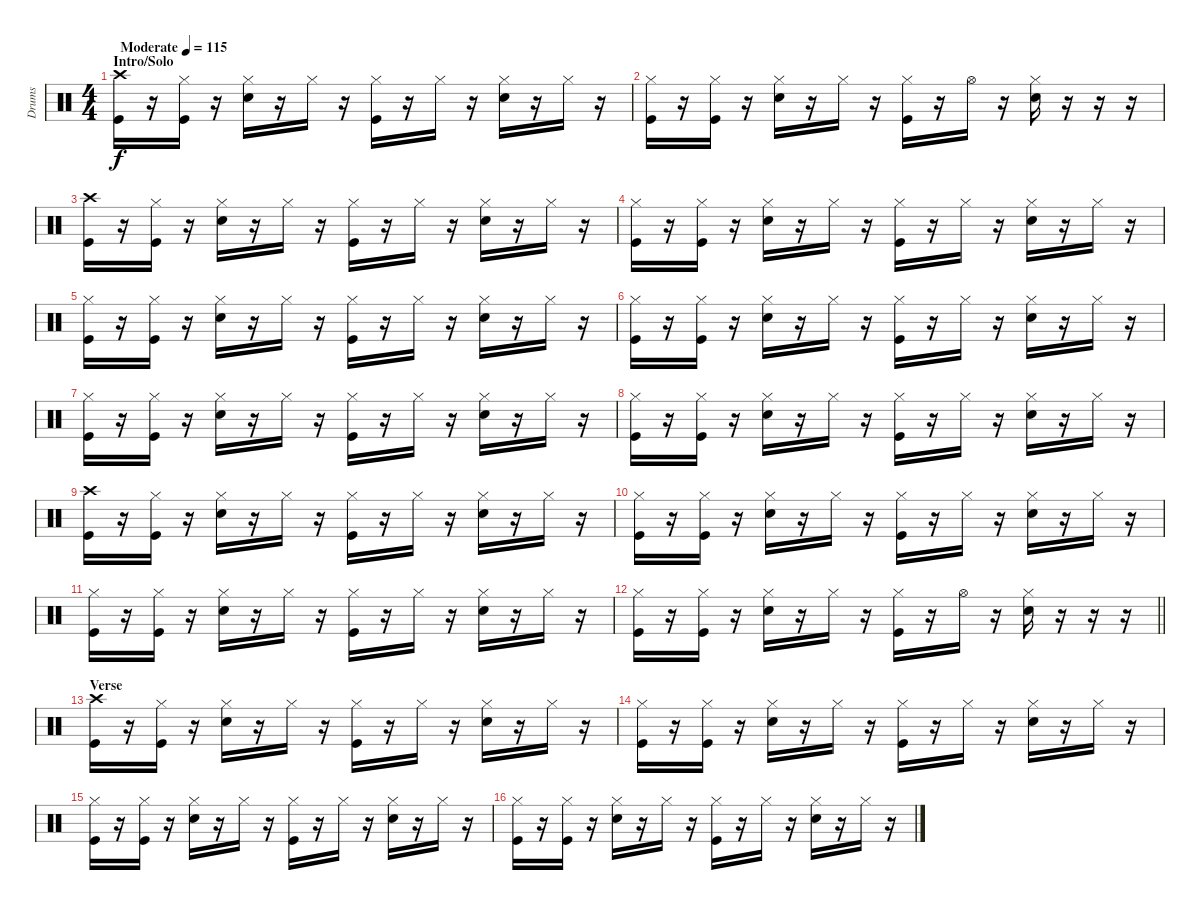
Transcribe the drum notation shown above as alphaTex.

\track ("Drums" "Drums") {instrument percussion}
\staff {score}
\articulation defaults
\ts (4 4)
\section ("" "Intro/Solo")
\tempo (115 "Moderate")
\clef neutral
\ks c
("Crash high (hit)" "Kick (hit)").16{dy f} r.16 ("Hi-Hat (closed)" "Kick (hit)").16 r.16 ("Hi-Hat (closed)" "Snare (hit) 2").16 r.16 "Hi-Hat (closed)".16 r.16 ("Hi-Hat (closed)" "Kick (hit)").16 r.16 "Hi-Hat (closed)".16 r.16 ("Hi-Hat (closed)" "Snare (hit) 2").16 r.16 "Hi-Hat (closed)".16 r.16 |
("Hi-Hat (closed)" "Kick (hit)").16 r.16 ("Hi-Hat (closed)" "Kick (hit)").16 r.16 ("Hi-Hat (closed)" "Snare (hit) 2").16 r.16 "Hi-Hat (closed)".16 r.16 ("Hi-Hat (closed)" "Kick (hit)").16 r.16 "Hi-Hat (open)".16 r.16 ("Hi-Hat (closed)" "Snare (hit) 2").16 r.16 r.16 r.16 |
("Crash high (hit)" "Kick (hit)").16 r.16 ("Hi-Hat (closed)" "Kick (hit)").16 r.16 ("Hi-Hat (closed)" "Snare (hit) 2").16 r.16 "Hi-Hat (closed)".16 r.16 ("Hi-Hat (closed)" "Kick (hit)").16 r.16 "Hi-Hat (closed)".16 r.16 ("Hi-Hat (closed)" "Snare (hit) 2").16 r.16 "Hi-Hat (closed)".16 r.16 |
("Hi-Hat (closed)" "Kick (hit)").16 r.16 ("Hi-Hat (closed)" "Kick (hit)").16 r.16 ("Hi-Hat (closed)" "Snare (hit) 2").16 r.16 "Hi-Hat (closed)".16 r.16 ("Hi-Hat (closed)" "Kick (hit)").16 r.16 "Hi-Hat (closed)".16 r.16 ("Hi-Hat (closed)" "Snare (hit) 2").16 r.16 "Hi-Hat (closed)".16 r.16 |
("Hi-Hat (closed)" "Kick (hit)").16 r.16 ("Hi-Hat (closed)" "Kick (hit)").16 r.16 ("Hi-Hat (closed)" "Snare (hit) 2").16 r.16 "Hi-Hat (closed)".16 r.16 ("Hi-Hat (closed)" "Kick (hit)").16 r.16 "Hi-Hat (closed)".16 r.16 ("Hi-Hat (closed)" "Snare (hit) 2").16 r.16 "Hi-Hat (closed)".16 r.16 |
("Hi-Hat (closed)" "Kick (hit)").16 r.16 ("Hi-Hat (closed)" "Kick (hit)").16 r.16 ("Hi-Hat (closed)" "Snare (hit) 2").16 r.16 "Hi-Hat (closed)".16 r.16 ("Hi-Hat (closed)" "Kick (hit)").16 r.16 "Hi-Hat (closed)".16 r.16 ("Hi-Hat (closed)" "Snare (hit) 2").16 r.16 "Hi-Hat (closed)".16 r.16 |
("Hi-Hat (closed)" "Kick (hit)").16 r.16 ("Hi-Hat (closed)" "Kick (hit)").16 r.16 ("Hi-Hat (closed)" "Snare (hit) 2").16 r.16 "Hi-Hat (closed)".16 r.16 ("Hi-Hat (closed)" "Kick (hit)").16 r.16 "Hi-Hat (closed)".16 r.16 ("Hi-Hat (closed)" "Snare (hit) 2").16 r.16 "Hi-Hat (closed)".16 r.16 |
("Hi-Hat (closed)" "Kick (hit)").16 r.16 ("Hi-Hat (closed)" "Kick (hit)").16 r.16 ("Hi-Hat (closed)" "Snare (hit) 2").16 r.16 "Hi-Hat (closed)".16 r.16 ("Hi-Hat (closed)" "Kick (hit)").16 r.16 "Hi-Hat (closed)".16 r.16 ("Hi-Hat (closed)" "Snare (hit) 2").16 r.16 "Hi-Hat (closed)".16 r.16 |
("Crash high (hit)" "Kick (hit)").16 r.16 ("Hi-Hat (closed)" "Kick (hit)").16 r.16 ("Hi-Hat (closed)" "Snare (hit) 2").16 r.16 "Hi-Hat (closed)".16 r.16 ("Hi-Hat (closed)" "Kick (hit)").16 r.16 "Hi-Hat (closed)".16 r.16 ("Hi-Hat (closed)" "Snare (hit) 2").16 r.16 "Hi-Hat (closed)".16 r.16 |
("Hi-Hat (closed)" "Kick (hit)").16 r.16 ("Hi-Hat (closed)" "Kick (hit)").16 r.16 ("Hi-Hat (closed)" "Snare (hit) 2").16 r.16 "Hi-Hat (closed)".16 r.16 ("Hi-Hat (closed)" "Kick (hit)").16 r.16 "Hi-Hat (closed)".16 r.16 ("Hi-Hat (closed)" "Snare (hit) 2").16 r.16 "Hi-Hat (closed)".16 r.16 |
("Hi-Hat (closed)" "Kick (hit)").16 r.16 ("Hi-Hat (closed)" "Kick (hit)").16 r.16 ("Hi-Hat (closed)" "Snare (hit) 2").16 r.16 "Hi-Hat (closed)".16 r.16 ("Hi-Hat (closed)" "Kick (hit)").16 r.16 "Hi-Hat (closed)".16 r.16 ("Hi-Hat (closed)" "Snare (hit) 2").16 r.16 "Hi-Hat (closed)".16 r.16 |
\barLineRight lightlight
("Hi-Hat (closed)" "Kick (hit)").16 r.16 ("Hi-Hat (closed)" "Kick (hit)").16 r.16 ("Hi-Hat (closed)" "Snare (hit) 2").16 r.16 "Hi-Hat (closed)".16 r.16 ("Hi-Hat (closed)" "Kick (hit)").16 r.16 "Hi-Hat (open)".16 r.16 ("Hi-Hat (closed)" "Snare (hit) 2").16 r.16 r.16 r.16 |
\section ("" "Verse")
("Crash high (hit)" "Kick (hit)").16 r.16 ("Hi-Hat (closed)" "Kick (hit)").16 r.16 ("Hi-Hat (closed)" "Snare (hit) 2").16 r.16 "Hi-Hat (closed)".16 r.16 ("Hi-Hat (closed)" "Kick (hit)").16 r.16 "Hi-Hat (closed)".16 r.16 ("Hi-Hat (closed)" "Snare (hit) 2").16 r.16 "Hi-Hat (closed)".16 r.16 |
("Hi-Hat (closed)" "Kick (hit)").16 r.16 ("Hi-Hat (closed)" "Kick (hit)").16 r.16 ("Hi-Hat (closed)" "Snare (hit) 2").16 r.16 "Hi-Hat (closed)".16 r.16 ("Hi-Hat (closed)" "Kick (hit)").16 r.16 "Hi-Hat (closed)".16 r.16 ("Hi-Hat (closed)" "Snare (hit) 2").16 r.16 "Hi-Hat (closed)".16 r.16 |
("Hi-Hat (closed)" "Kick (hit)").16 r.16 ("Hi-Hat (closed)" "Kick (hit)").16 r.16 ("Hi-Hat (closed)" "Snare (hit) 2").16 r.16 "Hi-Hat (closed)".16 r.16 ("Hi-Hat (closed)" "Kick (hit)").16 r.16 "Hi-Hat (closed)".16 r.16 ("Hi-Hat (closed)" "Snare (hit) 2").16 r.16 "Hi-Hat (closed)".16 r.16 |
("Hi-Hat (closed)" "Kick (hit)").16 r.16 ("Hi-Hat (closed)" "Kick (hit)").16 r.16 ("Hi-Hat (closed)" "Snare (hit) 2").16 r.16 "Hi-Hat (closed)".16 r.16 ("Hi-Hat (closed)" "Kick (hit)").16 r.16 "Hi-Hat (closed)".16 r.16 ("Hi-Hat (closed)" "Snare (hit) 2").16 r.16 "Hi-Hat (closed)".16 r.16
